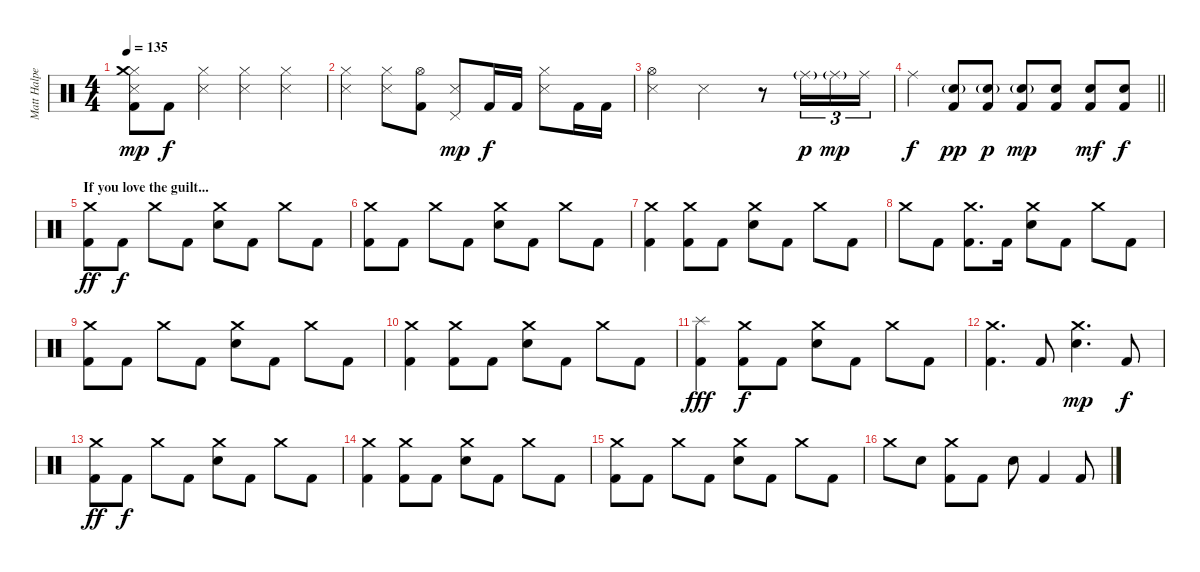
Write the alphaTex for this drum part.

\track ("Matt Halpern - Drums" "Matt Halpe") {instrument percussion}
\staff {score}
\articulation defaults
\ts (4 4)
\tempo 135
\clef neutral
\ks c
("Hi-Hat (closed)" "Crash medium (hit)" "Snare (side stick) 3" "Kick (hit) 2").8{dy mp} "Kick (hit) 2".8{dy f} ("Hi-Hat (closed)" "Snare (side stick) 3").4 ("Hi-Hat (closed)" "Snare (side stick) 3").4 ("Hi-Hat (closed)" "Snare (side stick) 3").4 |
("Hi-Hat (closed)" "Snare (side stick) 3").4 ("Hi-Hat (closed)" "Snare (side stick) 3").8 ("Hi-Hat (open)" "Kick (hit) 2").8 ("Snare (side stick) 3" "Pedal Hi-Hat (hit)").8{dy mp} "Kick (hit) 2".16{dy f} "Kick (hit) 2".16 ("Hi-Hat (closed)" "Snare (side stick) 3").8 "Kick (hit) 2".16 "Kick (hit) 2".16 |
("Hi-Hat (open)" "Snare (side stick) 3").4 "Snare (side stick) 3".2 r.8 "Ride (middle)"{g}.16{tu (3 2) dy p} "Ride (middle)"{g}.16{tu (3 2) dy mp} "Ride (middle)".16{tu (3 2)} |
\barLineRight lightlight "Ride (middle)".4{dy f}
("Electric Snare (hit)"{g} "Kick (hit) 2").8{dy pp} ("Electric Snare (hit)"{g} "Kick (hit) 2").8{dy p} ("Electric Snare (hit)"{g} "Kick (hit) 2").8{dy mp} ("Electric Snare (hit)" "Kick (hit) 2").8 ("Electric Snare (hit)" "Kick (hit) 2").8{dy mf} ("Electric Snare (hit)" "Kick (hit) 2").8{dy f} |
\section ("" "If you love the guilt...")
("Crash medium (hit)" "Kick (hit) 2").8{dy ff} "Kick (hit) 2".8{dy f} "Crash medium (hit)".8 "Kick (hit) 2".8 ("Crash medium (hit)" "Electric Snare (hit)").8 "Kick (hit) 2".8 "Crash medium (hit)".8 "Kick (hit) 2".8 |
("Crash medium (hit)" "Kick (hit) 2").8 "Kick (hit) 2".8 "Crash medium (hit)".8 "Kick (hit) 2".8 ("Crash medium (hit)" "Electric Snare (hit)").8 "Kick (hit) 2".8 "Crash medium (hit)".8 "Kick (hit) 2".8 |
("Crash medium (hit)" "Kick (hit) 2").4 ("Crash medium (hit)" "Kick (hit) 2").8 "Kick (hit) 2".8 ("Crash medium (hit)" "Electric Snare (hit)").8 "Kick (hit) 2".8 "Crash medium (hit)".8 "Kick (hit) 2".8 |
"Crash medium (hit)".8 "Kick (hit) 2".8 ("Crash medium (hit)" "Kick (hit) 2").8{d} "Kick (hit) 2".16 ("Crash medium (hit)" "Electric Snare (hit)").8 "Kick (hit) 2".8 "Crash medium (hit)".8 "Kick (hit) 2".8 |
("Crash medium (hit)" "Kick (hit) 2").8 "Kick (hit) 2".8 "Crash medium (hit)".8 "Kick (hit) 2".8 ("Crash medium (hit)" "Electric Snare (hit)").8 "Kick (hit) 2".8 "Crash medium (hit)".8 "Kick (hit) 2".8 |
("Crash medium (hit)" "Kick (hit) 2").4 ("Crash medium (hit)" "Kick (hit) 2").8 "Kick (hit) 2".8 ("Crash medium (hit)" "Electric Snare (hit)").8 "Kick (hit) 2".8 "Crash medium (hit)".8 "Kick (hit) 2".8 |
("Splash (hit)" "Kick (hit) 2").4{dy fff} ("Crash medium (hit)" "Kick (hit) 2").8{dy f} "Kick (hit) 2".8 ("Crash medium (hit)" "Electric Snare (hit)").8 "Kick (hit) 2".8 "Crash medium (hit)".8 "Kick (hit) 2".8 |
("Crash medium (hit)" "Kick (hit) 2").4{d} "Kick (hit) 2".8 ("Crash medium (hit)" "Electric Snare (hit)").4{d dy mp} "Kick (hit) 2".8{dy f} |
("Crash medium (hit)" "Kick (hit) 2").8{dy ff} "Kick (hit) 2".8{dy f} "Crash medium (hit)".8 "Kick (hit) 2".8 ("Crash medium (hit)" "Electric Snare (hit)").8 "Kick (hit) 2".8 "Crash medium (hit)".8 "Kick (hit) 2".8 |
("Crash medium (hit)" "Kick (hit) 2").4 ("Crash medium (hit)" "Kick (hit) 2").8 "Kick (hit) 2".8 ("Crash medium (hit)" "Electric Snare (hit)").8 "Kick (hit) 2".8 "Crash medium (hit)".8 "Kick (hit) 2".8 |
("Crash medium (hit)" "Kick (hit) 2").8 "Kick (hit) 2".8 "Crash medium (hit)".8 "Kick (hit) 2".8 ("Crash medium (hit)" "Electric Snare (hit)").8 "Kick (hit) 2".8 "Crash medium (hit)".8 "Kick (hit) 2".8 |
"Crash medium (hit)".8 "Electric Snare (hit)".8 ("Crash medium (hit)" "Kick (hit) 2").8 "Kick (hit) 2".8 "Electric Snare (hit)".8 "Kick (hit) 2".4 "Kick (hit) 2".8
